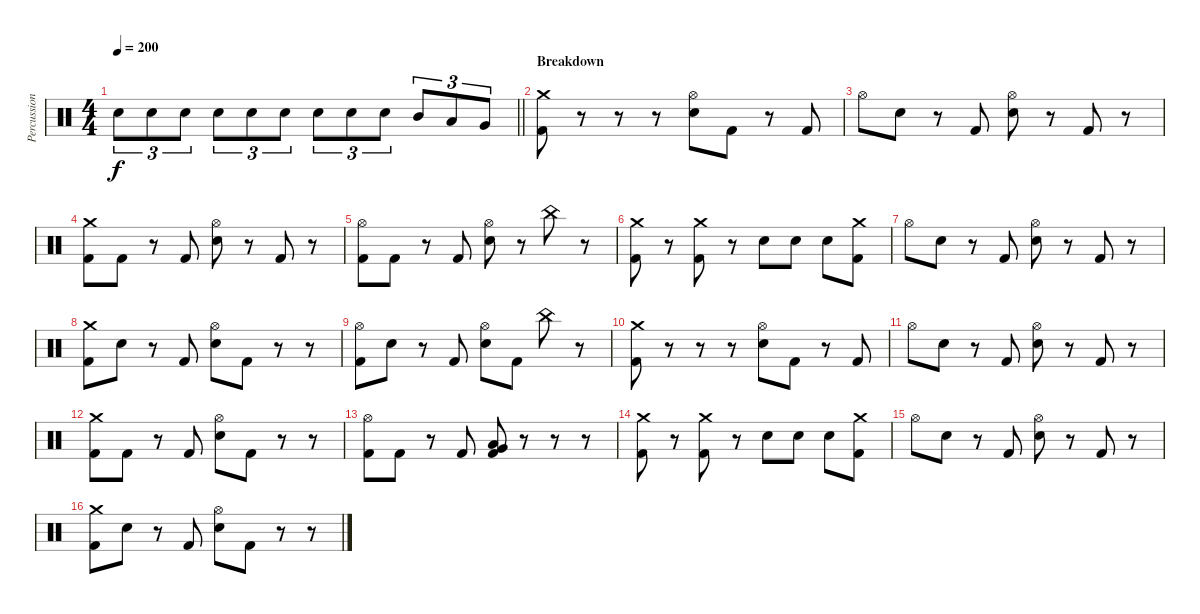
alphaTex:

\track ("Percussion" "Percussion") {instrument percussion}
\staff {score}
\articulation defaults
\ts (4 4)
\tempo 200
\clef neutral
\barLineRight lightlight
\ks c "Electric Snare (hit)".8{tu (3 2) dy f} "Electric Snare (hit)".8{tu (3 2)} "Electric Snare (hit)".8{tu (3 2)} "Electric Snare (hit)".8{tu (3 2)} "Electric Snare (hit)".8{tu (3 2)} "Electric Snare (hit)".8{tu (3 2)} "Electric Snare (hit)".8{tu (3 2)} "Electric Snare (hit)".8{tu (3 2)} "Electric Snare (hit)".8{tu (3 2)} "Mid Tom (hit)".8{tu (3 2)} "Low Tom (hit)".8{tu (3 2)} "Very Low Tom (hit)".8{tu (3 2)}
|
\section ("" "Breakdown")
("Crash medium (hit)" "Kick (hit) 2").8 r.8 r.8 r.8 ("Hi-Hat (open)" "Electric Snare (hit)").8 "Kick (hit) 2".8 r.8 "Kick (hit) 2".8 |
"Hi-Hat (open)".8 "Electric Snare (hit)".8 r.8 "Kick (hit) 2".8 ("Hi-Hat (open)" "Electric Snare (hit)").8 r.8 "Kick (hit) 2".8 r.8 |
("Crash medium (hit)" "Kick (hit) 2").8 "Kick (hit) 2".8 r.8 "Kick (hit) 2".8 ("Hi-Hat (open)" "Electric Snare (hit)").8 r.8 "Kick (hit) 2".8 r.8 |
("Hi-Hat (open)" "Kick (hit) 2").8 "Kick (hit) 2".8 r.8 "Kick (hit) 2".8 ("Hi-Hat (open)" "Electric Snare (hit)").8 r.8 "China (hit)".8 r.8 |
("Crash medium (hit)" "Kick (hit) 2").8 r.8 ("Crash medium (hit)" "Kick (hit) 2").8 r.8 "Electric Snare (hit)".8 "Electric Snare (hit)".8 "Electric Snare (hit)".8 ("Crash medium (hit)" "Kick (hit) 2").8 |
"Hi-Hat (open)".8 "Electric Snare (hit)".8 r.8 "Kick (hit) 2".8 ("Hi-Hat (open)" "Electric Snare (hit)").8 r.8 "Kick (hit) 2".8 r.8 |
("Crash medium (hit)" "Kick (hit) 2").8 "Electric Snare (hit)".8 r.8 "Kick (hit) 2".8 ("Hi-Hat (open)" "Electric Snare (hit)").8 "Kick (hit) 2".8 r.8 r.8 |
("Hi-Hat (open)" "Kick (hit) 2").8 "Electric Snare (hit)".8 r.8 "Kick (hit) 2".8 ("Hi-Hat (open)" "Electric Snare (hit)").8 "Kick (hit) 2".8 "China (hit)".8 r.8 |
("Crash medium (hit)" "Kick (hit) 2").8 r.8 r.8 r.8 ("Hi-Hat (open)" "Electric Snare (hit)").8 "Kick (hit) 2".8 r.8 "Kick (hit) 2".8 |
"Hi-Hat (open)".8 "Electric Snare (hit)".8 r.8 "Kick (hit) 2".8 ("Hi-Hat (open)" "Electric Snare (hit)").8 r.8 "Kick (hit) 2".8 r.8 |
("Crash medium (hit)" "Kick (hit) 2").8 "Kick (hit) 2".8 r.8 "Kick (hit) 2".8 ("Hi-Hat (open)" "Electric Snare (hit)").8 "Kick (hit) 2".8 r.8 r.8 |
("Hi-Hat (open)" "Kick (hit) 2").8 "Kick (hit) 2".8 r.8 "Kick (hit) 2".8 ("Very Low Tom (hit)" "Low Tom (hit)" "Kick (hit) 2").8{bd 30} r.8 r.8 r.8 |
("Crash medium (hit)" "Kick (hit) 2").8 r.8 ("Crash medium (hit)" "Kick (hit) 2").8 r.8 "Electric Snare (hit)".8 "Electric Snare (hit)".8 "Electric Snare (hit)".8 ("Crash medium (hit)" "Kick (hit) 2").8 |
"Hi-Hat (open)".8 "Electric Snare (hit)".8 r.8 "Kick (hit) 2".8 ("Hi-Hat (open)" "Electric Snare (hit)").8 r.8 "Kick (hit) 2".8 r.8 |
("Crash medium (hit)" "Kick (hit) 2").8 "Electric Snare (hit)".8 r.8 "Kick (hit) 2".8 ("Hi-Hat (open)" "Electric Snare (hit)").8 "Kick (hit) 2".8 r.8 r.8
